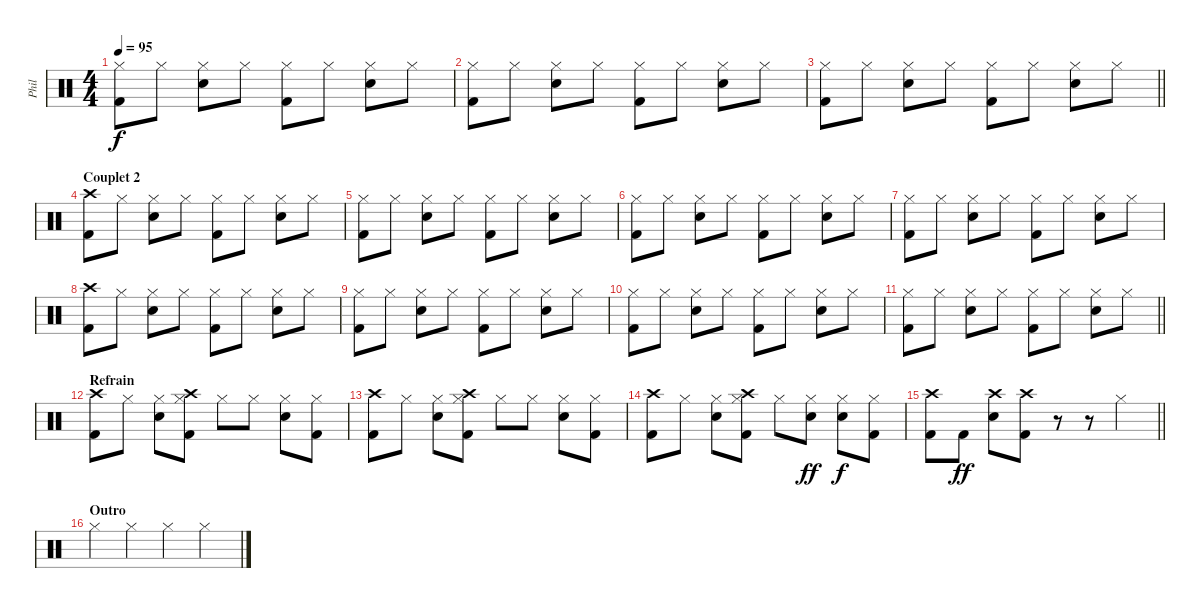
\track ("Phil" "Phil") {instrument percussion}
\staff {score}
\articulation defaults
\ts (4 4)
\tempo 95
\clef neutral
\ks c
("Kick (hit) 2" "Hi-Hat (closed)").8{dy f} "Hi-Hat (closed)".8 ("Electric Snare (hit)" "Hi-Hat (closed)").8 "Hi-Hat (closed)".8 ("Kick (hit) 2" "Hi-Hat (closed)").8 "Hi-Hat (closed)".8 ("Electric Snare (hit)" "Hi-Hat (closed)").8 "Hi-Hat (closed)".8 |
("Kick (hit) 2" "Hi-Hat (closed)").8 "Hi-Hat (closed)".8 ("Electric Snare (hit)" "Hi-Hat (closed)").8 "Hi-Hat (closed)".8 ("Kick (hit) 2" "Hi-Hat (closed)").8 "Hi-Hat (closed)".8 ("Electric Snare (hit)" "Hi-Hat (closed)").8 "Hi-Hat (closed)".8 |
\barLineRight lightlight
("Kick (hit) 2" "Hi-Hat (closed)").8 "Hi-Hat (closed)".8 ("Electric Snare (hit)" "Hi-Hat (closed)").8 "Hi-Hat (closed)".8 ("Kick (hit) 2" "Hi-Hat (closed)").8 "Hi-Hat (closed)".8 ("Electric Snare (hit)" "Hi-Hat (closed)").8 "Hi-Hat (closed)".8 |
\section ("" "Couplet 2")
("Kick (hit) 2" "Crash high (hit)").8 "Hi-Hat (closed)".8 ("Electric Snare (hit)" "Hi-Hat (closed)").8 "Hi-Hat (closed)".8 ("Kick (hit) 2" "Hi-Hat (closed)").8 "Hi-Hat (closed)".8 ("Electric Snare (hit)" "Hi-Hat (closed)").8 "Hi-Hat (closed)".8 |
("Kick (hit) 2" "Hi-Hat (closed)").8 "Hi-Hat (closed)".8 ("Electric Snare (hit)" "Hi-Hat (closed)").8 "Hi-Hat (closed)".8 ("Kick (hit) 2" "Hi-Hat (closed)").8 "Hi-Hat (closed)".8 ("Electric Snare (hit)" "Hi-Hat (closed)").8 "Hi-Hat (closed)".8 |
("Kick (hit) 2" "Hi-Hat (closed)").8 "Hi-Hat (closed)".8 ("Electric Snare (hit)" "Hi-Hat (closed)").8 "Hi-Hat (closed)".8 ("Kick (hit) 2" "Hi-Hat (closed)").8 "Hi-Hat (closed)".8 ("Electric Snare (hit)" "Hi-Hat (closed)").8 "Hi-Hat (closed)".8 |
("Kick (hit) 2" "Hi-Hat (closed)").8 "Hi-Hat (closed)".8 ("Electric Snare (hit)" "Hi-Hat (closed)").8 "Hi-Hat (closed)".8 ("Kick (hit) 2" "Hi-Hat (closed)").8 "Hi-Hat (closed)".8 ("Electric Snare (hit)" "Hi-Hat (closed)").8 "Hi-Hat (closed)".8 |
("Kick (hit) 2" "Crash high (hit)").8 "Hi-Hat (closed)".8 ("Electric Snare (hit)" "Hi-Hat (closed)").8 "Hi-Hat (closed)".8 ("Kick (hit) 2" "Hi-Hat (closed)").8 "Hi-Hat (closed)".8 ("Electric Snare (hit)" "Hi-Hat (closed)").8 "Hi-Hat (closed)".8 |
("Kick (hit) 2" "Hi-Hat (closed)").8 "Hi-Hat (closed)".8 ("Electric Snare (hit)" "Hi-Hat (closed)").8 "Hi-Hat (closed)".8 ("Kick (hit) 2" "Hi-Hat (closed)").8 "Hi-Hat (closed)".8 ("Electric Snare (hit)" "Hi-Hat (closed)").8 "Hi-Hat (closed)".8 |
("Kick (hit) 2" "Hi-Hat (closed)").8 "Hi-Hat (closed)".8 ("Electric Snare (hit)" "Hi-Hat (closed)").8 "Hi-Hat (closed)".8 ("Kick (hit) 2" "Hi-Hat (closed)").8 "Hi-Hat (closed)".8 ("Electric Snare (hit)" "Hi-Hat (closed)").8 "Hi-Hat (closed)".8 |
\barLineRight lightlight
("Kick (hit) 2" "Hi-Hat (closed)").8 "Hi-Hat (closed)".8 ("Electric Snare (hit)" "Hi-Hat (closed)").8 "Hi-Hat (closed)".8 ("Kick (hit) 2" "Hi-Hat (closed)").8 "Hi-Hat (closed)".8 ("Electric Snare (hit)" "Hi-Hat (closed)").8 "Hi-Hat (closed)".8 |
\section ("" "Refrain")
("Kick (hit) 2" "Crash high (hit)").8 "Hi-Hat (closed)".8 ("Electric Snare (hit)" "Hi-Hat (closed)").8 ("Kick (hit) 2" "Hi-Hat (closed)" "Crash high (hit)").8 "Hi-Hat (closed)".8 "Hi-Hat (closed)".8 ("Electric Snare (hit)" "Hi-Hat (closed)").8 ("Kick (hit) 2" "Hi-Hat (closed)").8 |
("Kick (hit) 2" "Crash high (hit)").8 "Hi-Hat (closed)".8 ("Electric Snare (hit)" "Hi-Hat (closed)").8 ("Kick (hit) 2" "Hi-Hat (closed)" "Crash high (hit)").8 "Hi-Hat (closed)".8 "Hi-Hat (closed)".8 ("Electric Snare (hit)" "Hi-Hat (closed)").8 ("Kick (hit) 2" "Hi-Hat (closed)").8 |
("Kick (hit) 2" "Crash high (hit)").8 "Hi-Hat (closed)".8 ("Electric Snare (hit)" "Hi-Hat (closed)").8 ("Kick (hit) 2" "Hi-Hat (closed)" "Crash high (hit)").8 "Hi-Hat (closed)".8 ("Electric Snare (hit)" "Hi-Hat (closed)").8{dy ff} ("Electric Snare (hit)" "Hi-Hat (closed)").8{dy f} ("Kick (hit) 2" "Hi-Hat (closed)").8 |
\barLineRight lightlight
("Kick (hit) 2" "Crash high (hit)").8 "Kick (hit) 2".8{dy ff} ("Electric Snare (hit)" "Crash high (hit)").8 ("Kick (hit) 2" "Crash high (hit)").8 r.8 r.8 "Hi-Hat (closed)".4 |
\section ("" "Outro")
"Hi-Hat (closed)".4 "Hi-Hat (closed)".4 "Hi-Hat (closed)".4 "Hi-Hat (closed)".4
